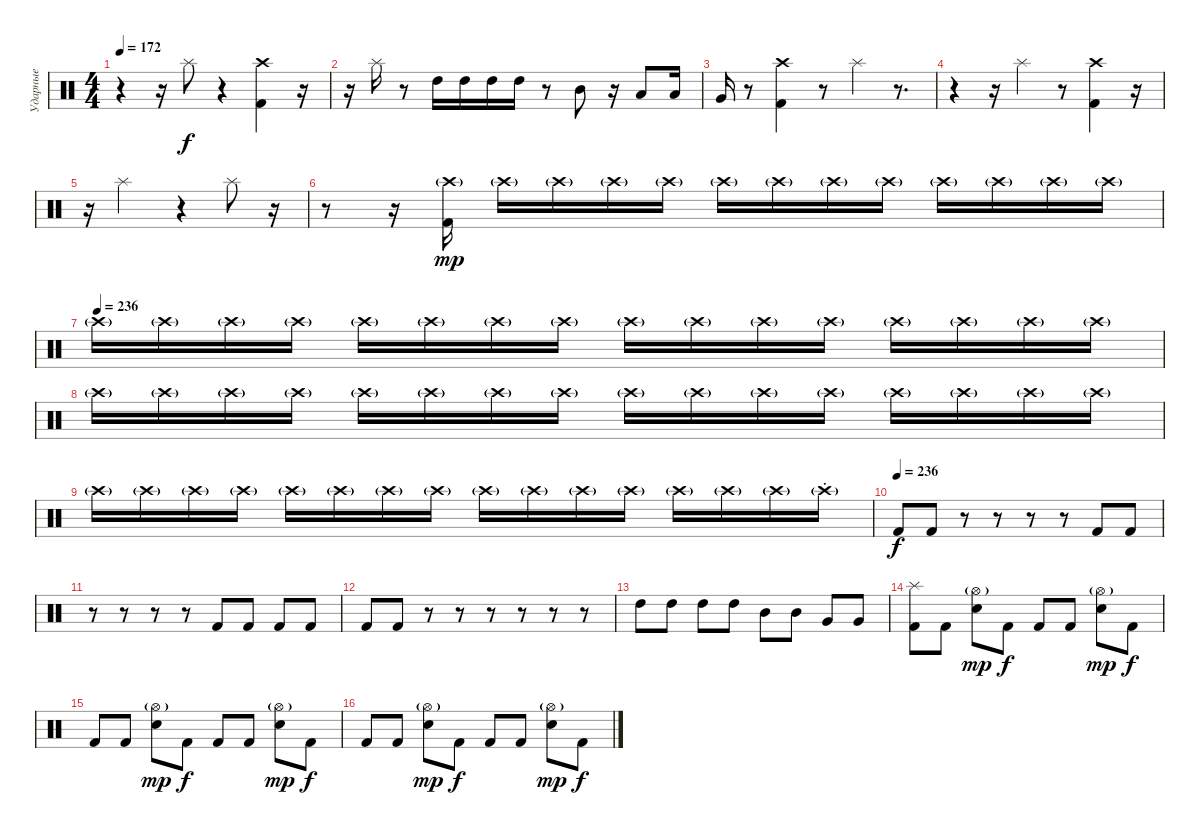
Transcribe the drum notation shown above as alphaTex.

\track ("Ударные" "Ударные") {instrument percussion}
\staff {score}
\articulation defaults
\ts (4 4)
\tempo 172
\clef neutral
\ks c
r.4{dy f} r.16 "Splash (hit)".8 r.4 ("Crash high (hit)" "Kick (hit) 2").4 r.16 |
r.16 "Splash (hit)".16 r.8 "High Tom (hit)".16 "High Tom (hit)".16 "High Tom (hit)".16 "High Tom (hit)".16 r.8 "Mid Tom (hit)".8 r.16 "Low Tom (hit)".8 "Low Tom (hit)".16 |
"Very Low Tom (hit)".16 r.8 ("Crash high (hit)" "Kick (hit) 2").4 r.8 "Splash (hit)".4 r.8{d} |
r.4 r.16 "Splash (hit)".4 r.8 ("Crash high (hit)" "Kick (hit) 2").4 r.16 |
r.16 "Splash (hit)".2 r.4 "Splash (hit)".8 r.16 |
r.8 r.16 ("Crash high (hit)"{g} "Kick (hit) 2").16{dy mp} "Crash high (hit)"{g}.16 "Crash high (hit)"{g}.16 "Crash high (hit)"{g}.16 "Crash high (hit)"{g}.16 "Crash high (hit)"{g}.16 "Crash high (hit)"{g}.16 "Crash high (hit)"{g}.16 "Crash high (hit)"{g}.16 "Crash high (hit)"{g}.16 "Crash high (hit)"{g}.16 "Crash high (hit)"{g}.16 "Crash high (hit)"{g}.16 |
\tempo (236)
"Crash high (hit)"{g}.16 "Crash high (hit)"{g}.16 "Crash high (hit)"{g}.16 "Crash high (hit)"{g}.16 "Crash high (hit)"{g}.16 "Crash high (hit)"{g}.16 "Crash high (hit)"{g}.16 "Crash high (hit)"{g}.16 "Crash high (hit)"{g}.16 "Crash high (hit)"{g}.16 "Crash high (hit)"{g}.16 "Crash high (hit)"{g}.16 "Crash high (hit)"{g}.16 "Crash high (hit)"{g}.16 "Crash high (hit)"{g}.16 "Crash high (hit)"{g}.16 |
"Crash high (hit)"{g}.16 "Crash high (hit)"{g}.16 "Crash high (hit)"{g}.16 "Crash high (hit)"{g}.16 "Crash high (hit)"{g}.16 "Crash high (hit)"{g}.16 "Crash high (hit)"{g}.16 "Crash high (hit)"{g}.16 "Crash high (hit)"{g}.16 "Crash high (hit)"{g}.16 "Crash high (hit)"{g}.16 "Crash high (hit)"{g}.16 "Crash high (hit)"{g}.16 "Crash high (hit)"{g}.16 "Crash high (hit)"{g}.16 "Crash high (hit)"{g}.16 |
"Crash high (hit)"{g}.16 "Crash high (hit)"{g}.16 "Crash high (hit)"{g}.16 "Crash high (hit)"{g}.16 "Crash high (hit)"{g}.16 "Crash high (hit)"{g}.16 "Crash high (hit)"{g}.16 "Crash high (hit)"{g}.16 "Crash high (hit)"{g}.16 "Crash high (hit)"{g}.16 "Crash high (hit)"{g}.16 "Crash high (hit)"{g}.16 "Crash high (hit)"{g}.16 "Crash high (hit)"{g}.16 "Crash high (hit)"{g}.16 "Crash high (hit)"{g st}.16 |
\tempo (236)
"Kick (hit) 2".8{dy f} "Kick (hit) 2".8 r.8 r.8 r.8 r.8 "Kick (hit) 2".8 "Kick (hit) 2".8 |
r.8 r.8 r.8 r.8 "Kick (hit) 2".8 "Kick (hit) 2".8 "Kick (hit) 2".8 "Kick (hit) 2".8 |
"Kick (hit) 2".8 "Kick (hit) 2".8 r.8 r.8 r.8 r.8 r.8 r.8 |
"High Tom (hit)".8 "High Tom (hit)".8 "High Tom (hit)".8 "High Tom (hit)".8 "Mid Tom (hit)".8 "Mid Tom (hit)".8 "Very Low Tom (hit)".8 "Very Low Tom (hit)".8 |
("Splash (hit)" "Kick (hit) 2").8 "Kick (hit) 2".8 ("Hi-Hat (open)"{g} "Electric Snare (hit)").8{dy mp} "Kick (hit) 2".8{dy f} "Kick (hit) 2".8 "Kick (hit) 2".8 ("Hi-Hat (open)"{g} "Electric Snare (hit)").8{dy mp} "Kick (hit) 2".8{dy f} |
"Kick (hit) 2".8 "Kick (hit) 2".8 ("Hi-Hat (open)"{g} "Electric Snare (hit)").8{dy mp} "Kick (hit) 2".8{dy f} "Kick (hit) 2".8 "Kick (hit) 2".8 ("Hi-Hat (open)"{g} "Electric Snare (hit)").8{dy mp} "Kick (hit) 2".8{dy f} |
"Kick (hit) 2".8 "Kick (hit) 2".8 ("Hi-Hat (open)"{g} "Electric Snare (hit)").8{dy mp} "Kick (hit) 2".8{dy f} "Kick (hit) 2".8 "Kick (hit) 2".8 ("Hi-Hat (open)"{g} "Electric Snare (hit)").8{dy mp} "Kick (hit) 2".8{dy f}
